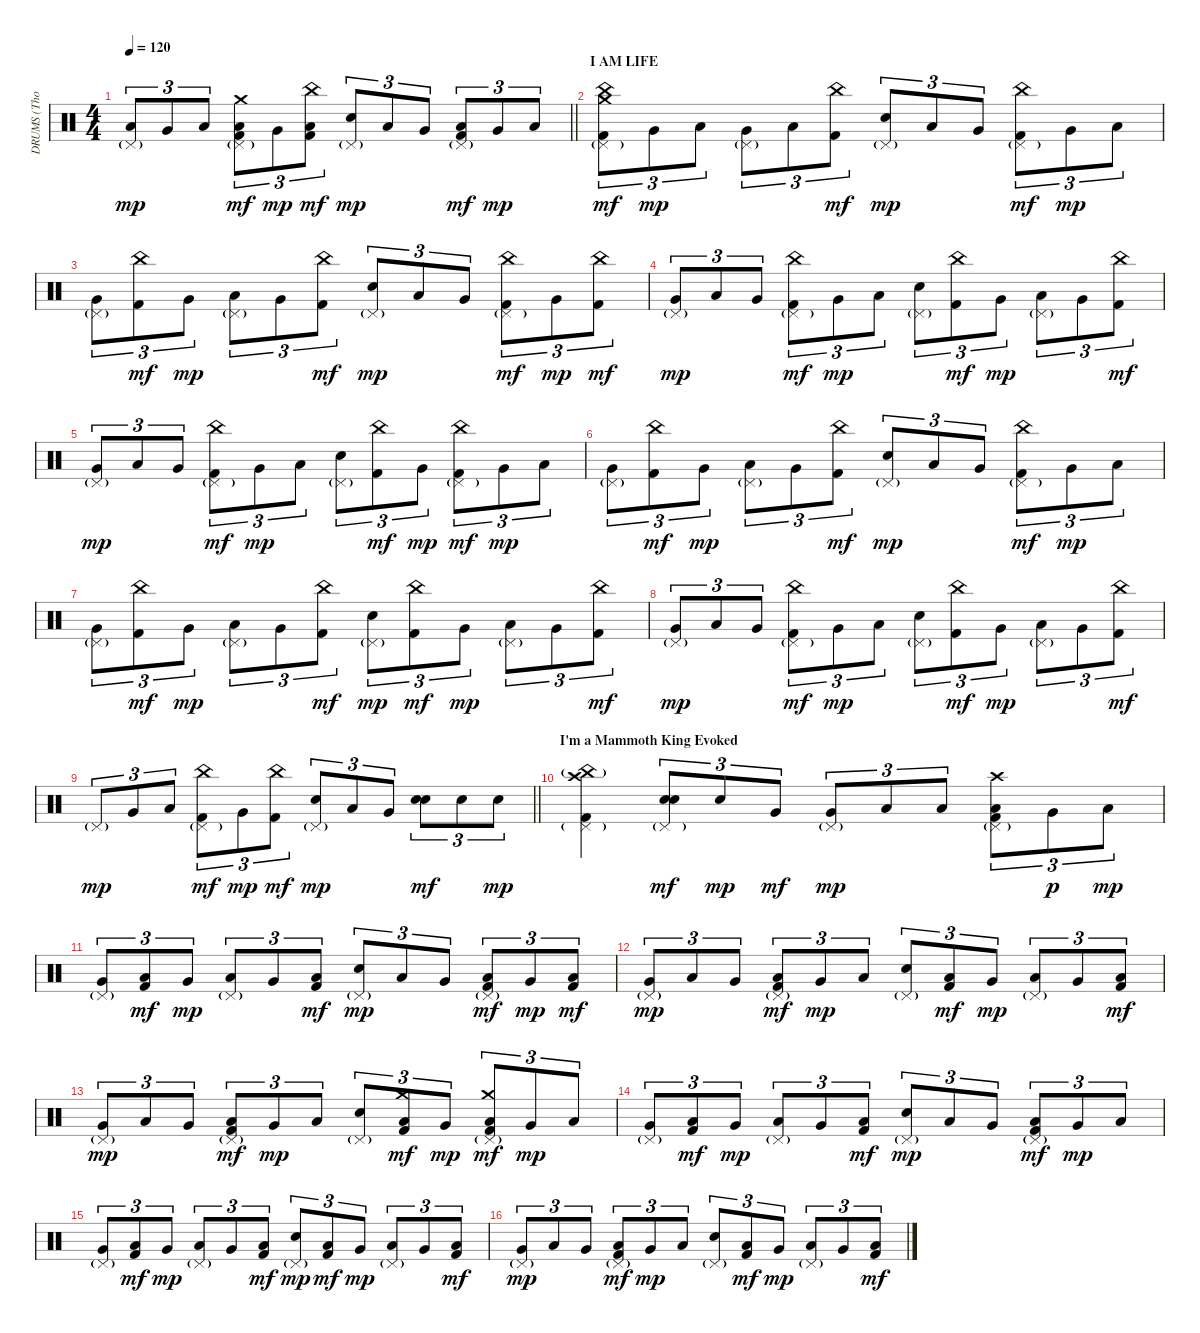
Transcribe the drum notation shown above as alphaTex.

\track ("DRUMS (Thomas Haake)" "DRUMS (Tho") {instrument percussion}
\staff {score}
\articulation defaults
\ts (4 4)
\tempo 120
\clef neutral
\barLineRight lightlight
\ks c
("Pedal Hi-Hat (hit)"{g} "Low Floor Tom (hit)").8{tu (3 2) dy mp} "Very Low Tom (hit)".8{tu (3 2)} "Low Floor Tom (hit)".8{tu (3 2)} ("Pedal Hi-Hat (hit)"{g} "Crash medium (hit)" "Low Floor Tom (hit)" "Kick (hit) 2").8{tu (3 2) dy mf} "Very Low Tom (hit)".8{tu (3 2) dy mp} ("China (hit)" "Low Floor Tom (hit)" "Kick (hit) 2").8{tu (3 2) dy mf} ("Pedal Hi-Hat (hit)"{g} "Electric Snare (hit)").8{tu (3 2) dy mp} "Low Floor Tom (hit)".8{tu (3 2)} "Very Low Tom (hit)".8{tu (3 2)} ("Pedal Hi-Hat (hit)"{g} "Low Floor Tom (hit)" "Kick (hit) 2").8{tu (3 2) dy mf} "Very Low Tom (hit)".8{tu (3 2) dy mp} "Low Floor Tom (hit)".8{tu (3 2)} |
\section ("" "I AM LIFE")
("Pedal Hi-Hat (hit)"{g} "Crash medium (hit)" "China (hit)" "Kick (hit) 2").8{tu (3 2) dy mf} "Very Low Tom (hit)".8{tu (3 2) dy mp} "Low Floor Tom (hit)".8{tu (3 2)} ("Pedal Hi-Hat (hit)"{g} "Very Low Tom (hit)").8{tu (3 2)} "Low Floor Tom (hit)".8{tu (3 2)} ("China (hit)" "Kick (hit) 2").8{tu (3 2) dy mf} ("Pedal Hi-Hat (hit)"{g} "Electric Snare (hit)").8{tu (3 2) dy mp} "Low Floor Tom (hit)".8{tu (3 2)} "Very Low Tom (hit)".8{tu (3 2)} ("Pedal Hi-Hat (hit)"{g} "China (hit)" "Kick (hit) 2").8{tu (3 2) dy mf} "Very Low Tom (hit)".8{tu (3 2) dy mp} "Low Floor Tom (hit)".8{tu (3 2)} |
("Pedal Hi-Hat (hit)"{g} "Very Low Tom (hit)").8{tu (3 2)} ("China (hit)" "Kick (hit) 2").8{tu (3 2) dy mf} "Very Low Tom (hit)".8{tu (3 2) dy mp} ("Pedal Hi-Hat (hit)"{g} "Low Floor Tom (hit)").8{tu (3 2)} "Very Low Tom (hit)".8{tu (3 2)} ("China (hit)" "Kick (hit) 2").8{tu (3 2) dy mf} ("Pedal Hi-Hat (hit)"{g} "Electric Snare (hit)").8{tu (3 2) dy mp} "Low Floor Tom (hit)".8{tu (3 2)} "Very Low Tom (hit)".8{tu (3 2)} ("Pedal Hi-Hat (hit)"{g} "China (hit)" "Kick (hit) 2").8{tu (3 2) dy mf} "Very Low Tom (hit)".8{tu (3 2) dy mp} ("China (hit)" "Kick (hit) 2").8{tu (3 2) dy mf} |
("Pedal Hi-Hat (hit)"{g} "Very Low Tom (hit)").8{tu (3 2) dy mp} "Low Floor Tom (hit)".8{tu (3 2)} "Very Low Tom (hit)".8{tu (3 2)} ("Pedal Hi-Hat (hit)"{g} "China (hit)" "Kick (hit) 2").8{tu (3 2) dy mf} "Very Low Tom (hit)".8{tu (3 2) dy mp} "Low Floor Tom (hit)".8{tu (3 2)} ("Pedal Hi-Hat (hit)"{g} "Electric Snare (hit)").8{tu (3 2)} ("China (hit)" "Kick (hit) 2").8{tu (3 2) dy mf} "Very Low Tom (hit)".8{tu (3 2) dy mp} ("Pedal Hi-Hat (hit)"{g} "Low Floor Tom (hit)").8{tu (3 2)} "Very Low Tom (hit)".8{tu (3 2)} ("China (hit)" "Kick (hit) 2").8{tu (3 2) dy mf} |
("Pedal Hi-Hat (hit)"{g} "Very Low Tom (hit)").8{tu (3 2) dy mp} "Low Floor Tom (hit)".8{tu (3 2)} "Very Low Tom (hit)".8{tu (3 2)} ("Pedal Hi-Hat (hit)"{g} "China (hit)" "Kick (hit) 2").8{tu (3 2) dy mf} "Very Low Tom (hit)".8{tu (3 2) dy mp} "Low Floor Tom (hit)".8{tu (3 2)} ("Pedal Hi-Hat (hit)"{g} "Electric Snare (hit)").8{tu (3 2)} ("China (hit)" "Kick (hit) 2").8{tu (3 2) dy mf} "Very Low Tom (hit)".8{tu (3 2) dy mp} ("Pedal Hi-Hat (hit)"{g} "China (hit)" "Kick (hit) 2").8{tu (3 2) dy mf} "Very Low Tom (hit)".8{tu (3 2) dy mp} "Low Floor Tom (hit)".8{tu (3 2)} |
("Pedal Hi-Hat (hit)"{g} "Very Low Tom (hit)").8{tu (3 2)} ("China (hit)" "Kick (hit) 2").8{tu (3 2) dy mf} "Very Low Tom (hit)".8{tu (3 2) dy mp} ("Pedal Hi-Hat (hit)"{g} "Low Floor Tom (hit)").8{tu (3 2)} "Very Low Tom (hit)".8{tu (3 2)} ("China (hit)" "Kick (hit) 2").8{tu (3 2) dy mf} ("Pedal Hi-Hat (hit)"{g} "Electric Snare (hit)").8{tu (3 2) dy mp} "Low Floor Tom (hit)".8{tu (3 2)} "Very Low Tom (hit)".8{tu (3 2)} ("Pedal Hi-Hat (hit)"{g} "China (hit)" "Kick (hit) 2").8{tu (3 2) dy mf} "Very Low Tom (hit)".8{tu (3 2) dy mp} "Low Floor Tom (hit)".8{tu (3 2)} |
("Pedal Hi-Hat (hit)"{g} "Very Low Tom (hit)").8{tu (3 2)} ("China (hit)" "Kick (hit) 2").8{tu (3 2) dy mf} "Very Low Tom (hit)".8{tu (3 2) dy mp} ("Pedal Hi-Hat (hit)"{g} "Low Floor Tom (hit)").8{tu (3 2)} "Very Low Tom (hit)".8{tu (3 2)} ("China (hit)" "Kick (hit) 2").8{tu (3 2) dy mf} ("Pedal Hi-Hat (hit)"{g} "Electric Snare (hit)").8{tu (3 2) dy mp} ("China (hit)" "Kick (hit) 2").8{tu (3 2) dy mf} "Very Low Tom (hit)".8{tu (3 2) dy mp} ("Pedal Hi-Hat (hit)"{g} "Low Floor Tom (hit)").8{tu (3 2)} "Very Low Tom (hit)".8{tu (3 2)} ("China (hit)" "Kick (hit) 2").8{tu (3 2) dy mf} |
("Pedal Hi-Hat (hit)"{g} "Very Low Tom (hit)").8{tu (3 2) dy mp} "Low Floor Tom (hit)".8{tu (3 2)} "Very Low Tom (hit)".8{tu (3 2)} ("Pedal Hi-Hat (hit)"{g} "China (hit)" "Kick (hit) 2").8{tu (3 2) dy mf} "Very Low Tom (hit)".8{tu (3 2) dy mp} "Low Floor Tom (hit)".8{tu (3 2)} ("Pedal Hi-Hat (hit)"{g} "Electric Snare (hit)").8{tu (3 2)} ("China (hit)" "Kick (hit) 2").8{tu (3 2) dy mf} "Very Low Tom (hit)".8{tu (3 2) dy mp} ("Pedal Hi-Hat (hit)"{g} "Low Floor Tom (hit)").8{tu (3 2)} "Very Low Tom (hit)".8{tu (3 2)} ("China (hit)" "Kick (hit) 2").8{tu (3 2) dy mf} |
\barLineRight lightlight "Pedal Hi-Hat (hit)"{g}.8{tu (3 2) dy mp} "Very Low Tom (hit)".8{tu (3 2)} "Low Floor Tom (hit)".8{tu (3 2)}
("Pedal Hi-Hat (hit)"{g} "China (hit)" "Kick (hit) 2").8{tu (3 2) dy mf} "Very Low Tom (hit)".8{tu (3 2) dy mp} ("China (hit)" "Kick (hit) 2").8{tu (3 2) dy mf} ("Pedal Hi-Hat (hit)"{g} "Electric Snare (hit)").8{tu (3 2) dy mp} "Low Floor Tom (hit)".8{tu (3 2)} "Very Low Tom (hit)".8{tu (3 2)} ("Electric Snare (hit)" "Electric Snare (hit)").8{tu (3 2) bd 240 dy mf} "Electric Snare (hit)".8{tu (3 2)} "Electric Snare (hit)".8{tu (3 2) dy mp} |
\section ("" "I'm a Mammoth King Evoked")
("Pedal Hi-Hat (hit)"{g} "Crash high (hit)" "China (hit)"{g} "Kick (hit) 2").4 ("Pedal Hi-Hat (hit)"{g} "Electric Snare (hit)" "Electric Snare (hit)").8{tu (3 2) bd 120 dy mf} "Electric Snare (hit)".8{tu (3 2) dy mp} "Very Low Tom (hit)".8{tu (3 2) dy mf} ("Pedal Hi-Hat (hit)"{g} "Very Low Tom (hit)").8{tu (3 2) dy mp} "Low Floor Tom (hit)".8{tu (3 2)} "Low Floor Tom (hit)".8{tu (3 2)} ("Pedal Hi-Hat (hit)"{g} "Crash high (hit)" "Low Floor Tom (hit)" "Kick (hit) 2").8{tu (3 2)} "Very Low Tom (hit)".8{tu (3 2) dy p} "Low Floor Tom (hit)".8{tu (3 2) dy mp} |
("Pedal Hi-Hat (hit)"{g} "Very Low Tom (hit)").8{tu (3 2)} ("Low Floor Tom (hit)" "Kick (hit) 2").8{tu (3 2) dy mf} "Very Low Tom (hit)".8{tu (3 2) dy mp} ("Pedal Hi-Hat (hit)"{g} "Low Floor Tom (hit)").8{tu (3 2)} "Very Low Tom (hit)".8{tu (3 2)} ("Low Floor Tom (hit)" "Kick (hit) 2").8{tu (3 2) dy mf} ("Pedal Hi-Hat (hit)"{g} "Electric Snare (hit)").8{tu (3 2) dy mp} "Low Floor Tom (hit)".8{tu (3 2)} "Very Low Tom (hit)".8{tu (3 2)} ("Pedal Hi-Hat (hit)"{g} "Low Floor Tom (hit)" "Kick (hit) 2").8{tu (3 2) dy mf} "Very Low Tom (hit)".8{tu (3 2) dy mp} ("Low Floor Tom (hit)" "Kick (hit) 2").8{tu (3 2) dy mf} |
("Pedal Hi-Hat (hit)"{g} "Very Low Tom (hit)").8{tu (3 2) dy mp} "Low Floor Tom (hit)".8{tu (3 2)} "Very Low Tom (hit)".8{tu (3 2)} ("Pedal Hi-Hat (hit)"{g} "Low Floor Tom (hit)" "Kick (hit) 2").8{tu (3 2) dy mf} "Very Low Tom (hit)".8{tu (3 2) dy mp} "Low Floor Tom (hit)".8{tu (3 2)} ("Pedal Hi-Hat (hit)"{g} "Electric Snare (hit)").8{tu (3 2)} ("Low Floor Tom (hit)" "Kick (hit) 2").8{tu (3 2) dy mf} "Very Low Tom (hit)".8{tu (3 2) dy mp} ("Pedal Hi-Hat (hit)"{g} "Low Floor Tom (hit)").8{tu (3 2)} "Very Low Tom (hit)".8{tu (3 2)} ("Low Floor Tom (hit)" "Kick (hit) 2").8{tu (3 2) dy mf} |
("Pedal Hi-Hat (hit)"{g} "Very Low Tom (hit)").8{tu (3 2) dy mp} "Low Floor Tom (hit)".8{tu (3 2)} "Very Low Tom (hit)".8{tu (3 2)} ("Pedal Hi-Hat (hit)"{g} "Low Floor Tom (hit)" "Kick (hit) 2").8{tu (3 2) dy mf} "Very Low Tom (hit)".8{tu (3 2) dy mp} "Low Floor Tom (hit)".8{tu (3 2)} ("Pedal Hi-Hat (hit)"{g} "Electric Snare (hit)").8{tu (3 2)} ("Crash medium (hit)" "Low Floor Tom (hit)" "Kick (hit) 2").8{tu (3 2) dy mf} "Very Low Tom (hit)".8{tu (3 2) dy mp} ("Pedal Hi-Hat (hit)"{g} "Crash medium (hit)" "Low Floor Tom (hit)" "Kick (hit) 2").8{tu (3 2) dy mf} "Very Low Tom (hit)".8{tu (3 2) dy mp} "Low Floor Tom (hit)".8{tu (3 2)} |
("Pedal Hi-Hat (hit)"{g} "Very Low Tom (hit)").8{tu (3 2)} ("Low Floor Tom (hit)" "Kick (hit) 2").8{tu (3 2) dy mf} "Very Low Tom (hit)".8{tu (3 2) dy mp} ("Pedal Hi-Hat (hit)"{g} "Low Floor Tom (hit)").8{tu (3 2)} "Very Low Tom (hit)".8{tu (3 2)} ("Low Floor Tom (hit)" "Kick (hit) 2").8{tu (3 2) dy mf} ("Pedal Hi-Hat (hit)"{g} "Electric Snare (hit)").8{tu (3 2) dy mp} "Low Floor Tom (hit)".8{tu (3 2)} "Very Low Tom (hit)".8{tu (3 2)} ("Pedal Hi-Hat (hit)"{g} "Low Floor Tom (hit)" "Kick (hit) 2").8{tu (3 2) dy mf} "Very Low Tom (hit)".8{tu (3 2) dy mp} "Low Floor Tom (hit)".8{tu (3 2)} |
("Pedal Hi-Hat (hit)"{g} "Very Low Tom (hit)").8{tu (3 2)} ("Low Floor Tom (hit)" "Kick (hit) 2").8{tu (3 2) dy mf} "Very Low Tom (hit)".8{tu (3 2) dy mp} ("Pedal Hi-Hat (hit)"{g} "Low Floor Tom (hit)").8{tu (3 2)} "Very Low Tom (hit)".8{tu (3 2)} ("Low Floor Tom (hit)" "Kick (hit) 2").8{tu (3 2) dy mf} ("Pedal Hi-Hat (hit)"{g} "Electric Snare (hit)").8{tu (3 2) dy mp} ("Low Floor Tom (hit)" "Kick (hit) 2").8{tu (3 2) dy mf} "Very Low Tom (hit)".8{tu (3 2) dy mp} ("Pedal Hi-Hat (hit)"{g} "Low Floor Tom (hit)").8{tu (3 2)} "Very Low Tom (hit)".8{tu (3 2)} ("Low Floor Tom (hit)" "Kick (hit) 2").8{tu (3 2) dy mf} |
("Pedal Hi-Hat (hit)"{g} "Very Low Tom (hit)").8{tu (3 2) dy mp} "Low Floor Tom (hit)".8{tu (3 2)} "Very Low Tom (hit)".8{tu (3 2)} ("Pedal Hi-Hat (hit)"{g} "Low Floor Tom (hit)" "Kick (hit) 2").8{tu (3 2) dy mf} "Very Low Tom (hit)".8{tu (3 2) dy mp} "Low Floor Tom (hit)".8{tu (3 2)} ("Pedal Hi-Hat (hit)"{g} "Electric Snare (hit)").8{tu (3 2)} ("Low Floor Tom (hit)" "Kick (hit) 2").8{tu (3 2) dy mf} "Very Low Tom (hit)".8{tu (3 2) dy mp} ("Pedal Hi-Hat (hit)"{g} "Low Floor Tom (hit)").8{tu (3 2)} "Very Low Tom (hit)".8{tu (3 2)} ("Low Floor Tom (hit)" "Kick (hit) 2").8{tu (3 2) dy mf}
